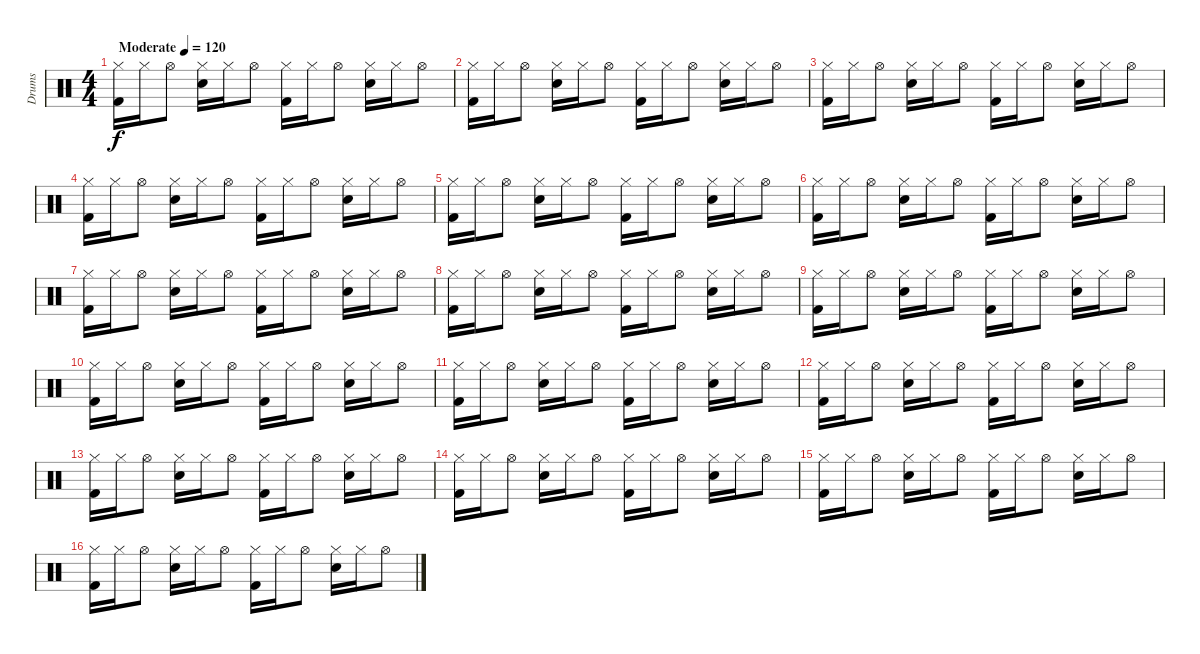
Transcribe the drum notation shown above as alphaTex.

\track ("Drums" "Drums") {instrument percussion}
\staff {score}
\articulation defaults
\ts (4 4)
\tempo (120 "Moderate")
\clef neutral
\ks c
("Kick (hit) 2" "Hi-Hat (closed)").16{dy f} "Hi-Hat (closed)".16 "Hi-Hat (open)".8 ("Electric Snare (hit)" "Hi-Hat (closed)").16 "Hi-Hat (closed)".16 "Hi-Hat (open)".8 ("Kick (hit) 2" "Hi-Hat (closed)").16 "Hi-Hat (closed)".16 "Hi-Hat (open)".8 ("Electric Snare (hit)" "Hi-Hat (closed)").16 "Hi-Hat (closed)".16 "Hi-Hat (open)".8 |
("Kick (hit) 2" "Hi-Hat (closed)").16 "Hi-Hat (closed)".16 "Hi-Hat (open)".8 ("Electric Snare (hit)" "Hi-Hat (closed)").16 "Hi-Hat (closed)".16 "Hi-Hat (open)".8 ("Kick (hit) 2" "Hi-Hat (closed)").16 "Hi-Hat (closed)".16 "Hi-Hat (open)".8 ("Electric Snare (hit)" "Hi-Hat (closed)").16 "Hi-Hat (closed)".16 "Hi-Hat (open)".8 |
("Kick (hit) 2" "Hi-Hat (closed)").16 "Hi-Hat (closed)".16 "Hi-Hat (open)".8 ("Electric Snare (hit)" "Hi-Hat (closed)").16 "Hi-Hat (closed)".16 "Hi-Hat (open)".8 ("Kick (hit) 2" "Hi-Hat (closed)").16 "Hi-Hat (closed)".16 "Hi-Hat (open)".8 ("Electric Snare (hit)" "Hi-Hat (closed)").16 "Hi-Hat (closed)".16 "Hi-Hat (open)".8 |
("Kick (hit) 2" "Hi-Hat (closed)").16 "Hi-Hat (closed)".16 "Hi-Hat (open)".8 ("Electric Snare (hit)" "Hi-Hat (closed)").16 "Hi-Hat (closed)".16 "Hi-Hat (open)".8 ("Kick (hit) 2" "Hi-Hat (closed)").16 "Hi-Hat (closed)".16 "Hi-Hat (open)".8 ("Electric Snare (hit)" "Hi-Hat (closed)").16 "Hi-Hat (closed)".16 "Hi-Hat (open)".8 |
("Kick (hit) 2" "Hi-Hat (closed)").16 "Hi-Hat (closed)".16 "Hi-Hat (open)".8 ("Electric Snare (hit)" "Hi-Hat (closed)").16 "Hi-Hat (closed)".16 "Hi-Hat (open)".8 ("Kick (hit) 2" "Hi-Hat (closed)").16 "Hi-Hat (closed)".16 "Hi-Hat (open)".8 ("Electric Snare (hit)" "Hi-Hat (closed)").16 "Hi-Hat (closed)".16 "Hi-Hat (open)".8 |
("Kick (hit) 2" "Hi-Hat (closed)").16 "Hi-Hat (closed)".16 "Hi-Hat (open)".8 ("Electric Snare (hit)" "Hi-Hat (closed)").16 "Hi-Hat (closed)".16 "Hi-Hat (open)".8 ("Kick (hit) 2" "Hi-Hat (closed)").16 "Hi-Hat (closed)".16 "Hi-Hat (open)".8 ("Electric Snare (hit)" "Hi-Hat (closed)").16 "Hi-Hat (closed)".16 "Hi-Hat (open)".8 |
("Kick (hit) 2" "Hi-Hat (closed)").16 "Hi-Hat (closed)".16 "Hi-Hat (open)".8 ("Electric Snare (hit)" "Hi-Hat (closed)").16 "Hi-Hat (closed)".16 "Hi-Hat (open)".8 ("Kick (hit) 2" "Hi-Hat (closed)").16 "Hi-Hat (closed)".16 "Hi-Hat (open)".8 ("Electric Snare (hit)" "Hi-Hat (closed)").16 "Hi-Hat (closed)".16 "Hi-Hat (open)".8 |
("Kick (hit) 2" "Hi-Hat (closed)").16 "Hi-Hat (closed)".16 "Hi-Hat (open)".8 ("Electric Snare (hit)" "Hi-Hat (closed)").16 "Hi-Hat (closed)".16 "Hi-Hat (open)".8 ("Kick (hit) 2" "Hi-Hat (closed)").16 "Hi-Hat (closed)".16 "Hi-Hat (open)".8 ("Electric Snare (hit)" "Hi-Hat (closed)").16 "Hi-Hat (closed)".16 "Hi-Hat (open)".8 |
("Kick (hit) 2" "Hi-Hat (closed)").16 "Hi-Hat (closed)".16 "Hi-Hat (open)".8 ("Electric Snare (hit)" "Hi-Hat (closed)").16 "Hi-Hat (closed)".16 "Hi-Hat (open)".8 ("Kick (hit) 2" "Hi-Hat (closed)").16 "Hi-Hat (closed)".16 "Hi-Hat (open)".8 ("Electric Snare (hit)" "Hi-Hat (closed)").16 "Hi-Hat (closed)".16 "Hi-Hat (open)".8 |
("Kick (hit) 2" "Hi-Hat (closed)").16 "Hi-Hat (closed)".16 "Hi-Hat (open)".8 ("Electric Snare (hit)" "Hi-Hat (closed)").16 "Hi-Hat (closed)".16 "Hi-Hat (open)".8 ("Kick (hit) 2" "Hi-Hat (closed)").16 "Hi-Hat (closed)".16 "Hi-Hat (open)".8 ("Electric Snare (hit)" "Hi-Hat (closed)").16 "Hi-Hat (closed)".16 "Hi-Hat (open)".8 |
("Kick (hit) 2" "Hi-Hat (closed)").16 "Hi-Hat (closed)".16 "Hi-Hat (open)".8 ("Electric Snare (hit)" "Hi-Hat (closed)").16 "Hi-Hat (closed)".16 "Hi-Hat (open)".8 ("Kick (hit) 2" "Hi-Hat (closed)").16 "Hi-Hat (closed)".16 "Hi-Hat (open)".8 ("Electric Snare (hit)" "Hi-Hat (closed)").16 "Hi-Hat (closed)".16 "Hi-Hat (open)".8 |
("Kick (hit) 2" "Hi-Hat (closed)").16 "Hi-Hat (closed)".16 "Hi-Hat (open)".8 ("Electric Snare (hit)" "Hi-Hat (closed)").16 "Hi-Hat (closed)".16 "Hi-Hat (open)".8 ("Kick (hit) 2" "Hi-Hat (closed)").16 "Hi-Hat (closed)".16 "Hi-Hat (open)".8 ("Electric Snare (hit)" "Hi-Hat (closed)").16 "Hi-Hat (closed)".16 "Hi-Hat (open)".8 |
("Kick (hit) 2" "Hi-Hat (closed)").16 "Hi-Hat (closed)".16 "Hi-Hat (open)".8 ("Electric Snare (hit)" "Hi-Hat (closed)").16 "Hi-Hat (closed)".16 "Hi-Hat (open)".8 ("Kick (hit) 2" "Hi-Hat (closed)").16 "Hi-Hat (closed)".16 "Hi-Hat (open)".8 ("Electric Snare (hit)" "Hi-Hat (closed)").16 "Hi-Hat (closed)".16 "Hi-Hat (open)".8 |
("Kick (hit) 2" "Hi-Hat (closed)").16 "Hi-Hat (closed)".16 "Hi-Hat (open)".8 ("Electric Snare (hit)" "Hi-Hat (closed)").16 "Hi-Hat (closed)".16 "Hi-Hat (open)".8 ("Kick (hit) 2" "Hi-Hat (closed)").16 "Hi-Hat (closed)".16 "Hi-Hat (open)".8 ("Electric Snare (hit)" "Hi-Hat (closed)").16 "Hi-Hat (closed)".16 "Hi-Hat (open)".8 |
("Kick (hit) 2" "Hi-Hat (closed)").16 "Hi-Hat (closed)".16 "Hi-Hat (open)".8 ("Electric Snare (hit)" "Hi-Hat (closed)").16 "Hi-Hat (closed)".16 "Hi-Hat (open)".8 ("Kick (hit) 2" "Hi-Hat (closed)").16 "Hi-Hat (closed)".16 "Hi-Hat (open)".8 ("Electric Snare (hit)" "Hi-Hat (closed)").16 "Hi-Hat (closed)".16 "Hi-Hat (open)".8 |
("Kick (hit) 2" "Hi-Hat (closed)").16 "Hi-Hat (closed)".16 "Hi-Hat (open)".8 ("Electric Snare (hit)" "Hi-Hat (closed)").16 "Hi-Hat (closed)".16 "Hi-Hat (open)".8 ("Kick (hit) 2" "Hi-Hat (closed)").16 "Hi-Hat (closed)".16 "Hi-Hat (open)".8 ("Electric Snare (hit)" "Hi-Hat (closed)").16 "Hi-Hat (closed)".16 "Hi-Hat (open)".8
